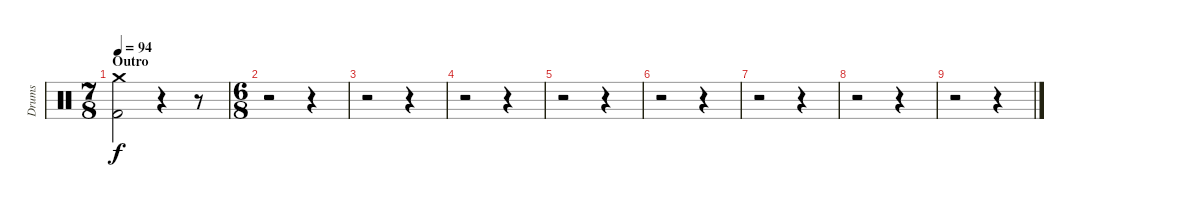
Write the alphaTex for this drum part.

\track ("Drums" "Drums") {instrument percussion}
\staff {score}
\articulation defaults
\ts (7 8)
\section ("" "Outro")
\tempo 94
\clef neutral
\ks c
("Crash medium (hit)" "Kick (hit) 2").2{dy f} r.4 r.8 |
\ts (6 8)
r.2 r.4 |
r.2 r.4 |
r.2 r.4 |
r.2 r.4 |
r.2 r.4 |
r.2 r.4 |
r.2 r.4 |
r.2 r.4
